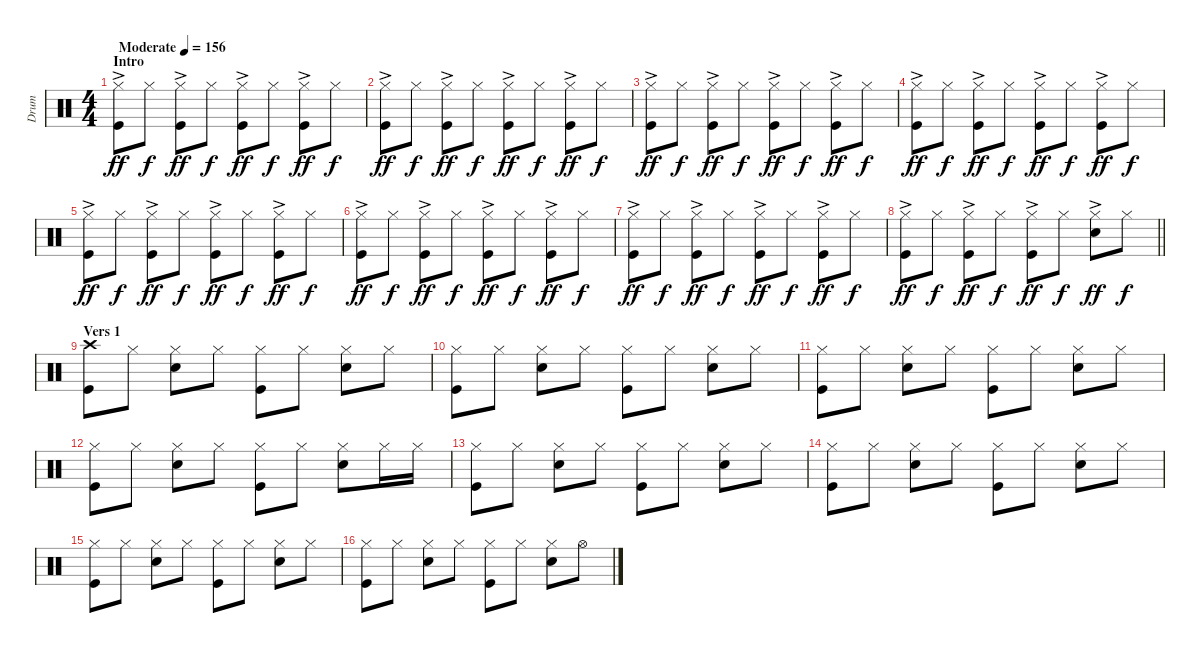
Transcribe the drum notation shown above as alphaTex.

\track ("Drum" "Drum") {instrument percussion}
\staff {score}
\articulation defaults
\ts (4 4)
\section ("" "Intro")
\tempo (156 "Moderate")
\clef neutral
\ks c
("Hi-Hat (closed)"{ac} "Kick (hit)").8{dy ff} "Hi-Hat (closed)".8{dy f} ("Hi-Hat (closed)"{ac} "Kick (hit)").8{dy ff} "Hi-Hat (closed)".8{dy f} ("Hi-Hat (closed)"{ac} "Kick (hit)").8{dy ff} "Hi-Hat (closed)".8{dy f} ("Hi-Hat (closed)"{ac} "Kick (hit)").8{dy ff} "Hi-Hat (closed)".8{dy f} |
("Hi-Hat (closed)"{ac} "Kick (hit)").8{dy ff} "Hi-Hat (closed)".8{dy f} ("Hi-Hat (closed)"{ac} "Kick (hit)").8{dy ff} "Hi-Hat (closed)".8{dy f} ("Hi-Hat (closed)"{ac} "Kick (hit)").8{dy ff} "Hi-Hat (closed)".8{dy f} ("Hi-Hat (closed)"{ac} "Kick (hit)").8{dy ff} "Hi-Hat (closed)".8{dy f} |
("Hi-Hat (closed)"{ac} "Kick (hit)").8{dy ff} "Hi-Hat (closed)".8{dy f} ("Hi-Hat (closed)"{ac} "Kick (hit)").8{dy ff} "Hi-Hat (closed)".8{dy f} ("Hi-Hat (closed)"{ac} "Kick (hit)").8{dy ff} "Hi-Hat (closed)".8{dy f} ("Hi-Hat (closed)"{ac} "Kick (hit)").8{dy ff} "Hi-Hat (closed)".8{dy f} |
("Hi-Hat (closed)"{ac} "Kick (hit)").8{dy ff} "Hi-Hat (closed)".8{dy f} ("Hi-Hat (closed)"{ac} "Kick (hit)").8{dy ff} "Hi-Hat (closed)".8{dy f} ("Hi-Hat (closed)"{ac} "Kick (hit)").8{dy ff} "Hi-Hat (closed)".8{dy f} ("Hi-Hat (closed)"{ac} "Kick (hit)").8{dy ff} "Hi-Hat (closed)".8{dy f} |
("Hi-Hat (closed)"{ac} "Kick (hit)").8{dy ff} "Hi-Hat (closed)".8{dy f} ("Hi-Hat (closed)"{ac} "Kick (hit)").8{dy ff} "Hi-Hat (closed)".8{dy f} ("Hi-Hat (closed)"{ac} "Kick (hit)").8{dy ff} "Hi-Hat (closed)".8{dy f} ("Hi-Hat (closed)"{ac} "Kick (hit)").8{dy ff} "Hi-Hat (closed)".8{dy f} |
("Hi-Hat (closed)"{ac} "Kick (hit)").8{dy ff} "Hi-Hat (closed)".8{dy f} ("Hi-Hat (closed)"{ac} "Kick (hit)").8{dy ff} "Hi-Hat (closed)".8{dy f} ("Hi-Hat (closed)"{ac} "Kick (hit)").8{dy ff} "Hi-Hat (closed)".8{dy f} ("Hi-Hat (closed)"{ac} "Kick (hit)").8{dy ff} "Hi-Hat (closed)".8{dy f} |
("Hi-Hat (closed)"{ac} "Kick (hit)").8{dy ff} "Hi-Hat (closed)".8{dy f} ("Hi-Hat (closed)"{ac} "Kick (hit)").8{dy ff} "Hi-Hat (closed)".8{dy f} ("Hi-Hat (closed)"{ac} "Kick (hit)").8{dy ff} "Hi-Hat (closed)".8{dy f} ("Hi-Hat (closed)"{ac} "Kick (hit)").8{dy ff} "Hi-Hat (closed)".8{dy f} |
\barLineRight lightlight
("Hi-Hat (closed)"{ac} "Kick (hit)").8{dy ff} "Hi-Hat (closed)".8{dy f} ("Hi-Hat (closed)"{ac} "Kick (hit)").8{dy ff} "Hi-Hat (closed)".8{dy f} ("Hi-Hat (closed)"{ac} "Kick (hit)").8{dy ff} "Hi-Hat (closed)".8{dy f} ("Hi-Hat (closed)"{ac} "Snare (hit) 2").8{dy ff} "Hi-Hat (closed)".8{dy f} |
\section ("" "Vers 1")
("Crash high (hit)" "Kick (hit)").8 "Hi-Hat (closed)".8 ("Hi-Hat (closed)" "Snare (hit) 2").8 "Hi-Hat (closed)".8 ("Hi-Hat (closed)" "Kick (hit)").8 "Hi-Hat (closed)".8 ("Hi-Hat (closed)" "Snare (hit) 2").8 "Hi-Hat (closed)".8 |
("Hi-Hat (closed)" "Kick (hit)").8 "Hi-Hat (closed)".8 ("Hi-Hat (closed)" "Snare (hit) 2").8 "Hi-Hat (closed)".8 ("Hi-Hat (closed)" "Kick (hit)").8 "Hi-Hat (closed)".8 ("Hi-Hat (closed)" "Snare (hit) 2").8 "Hi-Hat (closed)".8 |
("Hi-Hat (closed)" "Kick (hit)").8 "Hi-Hat (closed)".8 ("Hi-Hat (closed)" "Snare (hit) 2").8 "Hi-Hat (closed)".8 ("Hi-Hat (closed)" "Kick (hit)").8 "Hi-Hat (closed)".8 ("Hi-Hat (closed)" "Snare (hit) 2").8 "Hi-Hat (closed)".8 |
("Hi-Hat (closed)" "Kick (hit)").8 "Hi-Hat (closed)".8 ("Hi-Hat (closed)" "Snare (hit) 2").8 "Hi-Hat (closed)".8 ("Hi-Hat (closed)" "Kick (hit)").8 "Hi-Hat (closed)".8 ("Hi-Hat (closed)" "Snare (hit) 2").8 "Hi-Hat (closed)".16 "Hi-Hat (closed)".16 |
("Hi-Hat (closed)" "Kick (hit)").8 "Hi-Hat (closed)".8 ("Hi-Hat (closed)" "Snare (hit) 2").8 "Hi-Hat (closed)".8 ("Hi-Hat (closed)" "Kick (hit)").8 "Hi-Hat (closed)".8 ("Hi-Hat (closed)" "Snare (hit) 2").8 "Hi-Hat (closed)".8 |
("Hi-Hat (closed)" "Kick (hit)").8 "Hi-Hat (closed)".8 ("Hi-Hat (closed)" "Snare (hit) 2").8 "Hi-Hat (closed)".8 ("Hi-Hat (closed)" "Kick (hit)").8 "Hi-Hat (closed)".8 ("Hi-Hat (closed)" "Snare (hit) 2").8 "Hi-Hat (closed)".8 |
("Hi-Hat (closed)" "Kick (hit)").8 "Hi-Hat (closed)".8 ("Hi-Hat (closed)" "Snare (hit) 2").8 "Hi-Hat (closed)".8 ("Hi-Hat (closed)" "Kick (hit)").8 "Hi-Hat (closed)".8 ("Hi-Hat (closed)" "Snare (hit) 2").8 "Hi-Hat (closed)".8 |
("Hi-Hat (closed)" "Kick (hit)").8 "Hi-Hat (closed)".8 ("Hi-Hat (closed)" "Snare (hit) 2").8 "Hi-Hat (closed)".8 ("Hi-Hat (closed)" "Kick (hit)").8 "Hi-Hat (closed)".8 ("Hi-Hat (closed)" "Snare (hit) 2").8 "Hi-Hat (open)".8
